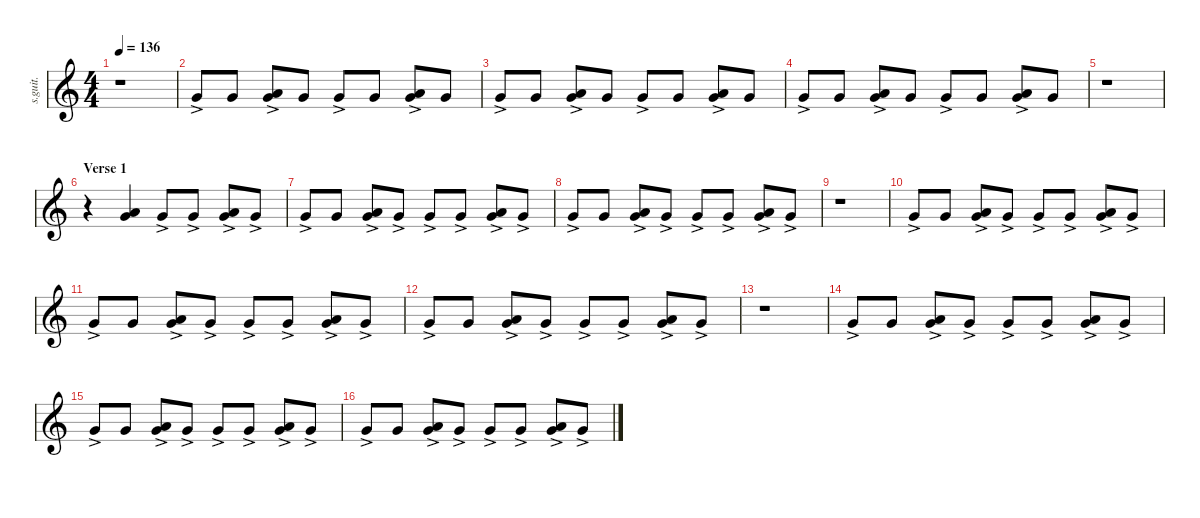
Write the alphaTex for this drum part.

\defaultSystemsLayout 4
\hideDynamics
\bracketExtendMode nobrackets
\track ("Shawn Crahan " "s.guit.") {instrument percussion}
\staff {score}
\articulation defaults
\ts (4 4)
\tempo 136
\clef g2
\ks c
r.1{dy fff} |
"Very Low Tom (hit)"{ac}.8{lyrics (0 "") lyrics (1 "") lyrics (2 "") lyrics (3 "") lyrics (4 "")} "Very Low Tom (hit)".8{lyrics (0 "") lyrics (1 "") lyrics (2 "") lyrics (3 "") lyrics (4 "")} ("Very Low Tom (hit)"{ac} "Low Floor Tom (hit)").8{lyrics (0 "") lyrics (1 "") lyrics (2 "") lyrics (3 "") lyrics (4 "")} "Very Low Tom (hit)".8{lyrics (0 "") lyrics (1 "") lyrics (2 "") lyrics (3 "") lyrics (4 "")} "Very Low Tom (hit)"{ac}.8{lyrics (0 "") lyrics (1 "") lyrics (2 "") lyrics (3 "") lyrics (4 "")} "Very Low Tom (hit)".8{lyrics (0 "") lyrics (1 "") lyrics (2 "") lyrics (3 "") lyrics (4 "")} ("Very Low Tom (hit)"{ac} "Low Floor Tom (hit)").8{lyrics (0 "") lyrics (1 "") lyrics (2 "") lyrics (3 "") lyrics (4 "")} "Very Low Tom (hit)".8{lyrics (0 "") lyrics (1 "") lyrics (2 "") lyrics (3 "") lyrics (4 "")} |
"Very Low Tom (hit)"{ac}.8{lyrics (0 "") lyrics (1 "") lyrics (2 "") lyrics (3 "") lyrics (4 "")} "Very Low Tom (hit)".8{lyrics (0 "") lyrics (1 "") lyrics (2 "") lyrics (3 "") lyrics (4 "")} ("Very Low Tom (hit)"{ac} "Low Floor Tom (hit)").8{lyrics (0 "") lyrics (1 "") lyrics (2 "") lyrics (3 "") lyrics (4 "")} "Very Low Tom (hit)".8{lyrics (0 "") lyrics (1 "") lyrics (2 "") lyrics (3 "") lyrics (4 "")} "Very Low Tom (hit)"{ac}.8{lyrics (0 "") lyrics (1 "") lyrics (2 "") lyrics (3 "") lyrics (4 "")} "Very Low Tom (hit)".8{lyrics (0 "") lyrics (1 "") lyrics (2 "") lyrics (3 "") lyrics (4 "")} ("Very Low Tom (hit)"{ac} "Low Floor Tom (hit)").8{lyrics (0 "") lyrics (1 "") lyrics (2 "") lyrics (3 "") lyrics (4 "")} "Very Low Tom (hit)".8{lyrics (0 "") lyrics (1 "") lyrics (2 "") lyrics (3 "") lyrics (4 "")} |
"Very Low Tom (hit)"{ac}.8{lyrics (0 "") lyrics (1 "") lyrics (2 "") lyrics (3 "") lyrics (4 "")} "Very Low Tom (hit)".8{lyrics (0 "") lyrics (1 "") lyrics (2 "") lyrics (3 "") lyrics (4 "")} ("Very Low Tom (hit)"{ac} "Low Floor Tom (hit)").8{lyrics (0 "") lyrics (1 "") lyrics (2 "") lyrics (3 "") lyrics (4 "")} "Very Low Tom (hit)".8{lyrics (0 "") lyrics (1 "") lyrics (2 "") lyrics (3 "") lyrics (4 "")} "Very Low Tom (hit)"{ac}.8{lyrics (0 "") lyrics (1 "") lyrics (2 "") lyrics (3 "") lyrics (4 "")} "Very Low Tom (hit)".8{lyrics (0 "") lyrics (1 "") lyrics (2 "") lyrics (3 "") lyrics (4 "")} ("Very Low Tom (hit)"{ac} "Low Floor Tom (hit)").8{lyrics (0 "") lyrics (1 "") lyrics (2 "") lyrics (3 "") lyrics (4 "")} "Very Low Tom (hit)".8{lyrics (0 "") lyrics (1 "") lyrics (2 "") lyrics (3 "") lyrics (4 "")} |
r.1 |
\section ("" "Verse 1")
r.4 ("Low Floor Tom (hit)" "Very Low Tom (hit)").4{lyrics (0 "") lyrics (1 "") lyrics (2 "") lyrics (3 "") lyrics (4 "")} "Very Low Tom (hit)"{ac}.8{lyrics (0 "") lyrics (1 "") lyrics (2 "") lyrics (3 "") lyrics (4 "")} "Very Low Tom (hit)"{ac}.8{lyrics (0 "") lyrics (1 "") lyrics (2 "") lyrics (3 "") lyrics (4 "")} ("Very Low Tom (hit)"{ac} "Low Floor Tom (hit)").8{lyrics (0 "") lyrics (1 "") lyrics (2 "") lyrics (3 "") lyrics (4 "")} "Very Low Tom (hit)"{ac}.8{lyrics (0 "") lyrics (1 "") lyrics (2 "") lyrics (3 "") lyrics (4 "")} |
"Very Low Tom (hit)"{ac}.8{lyrics (0 "") lyrics (1 "") lyrics (2 "") lyrics (3 "") lyrics (4 "")} "Very Low Tom (hit)".8{lyrics (0 "") lyrics (1 "") lyrics (2 "") lyrics (3 "") lyrics (4 "")} ("Very Low Tom (hit)"{ac} "Low Floor Tom (hit)").8{lyrics (0 "") lyrics (1 "") lyrics (2 "") lyrics (3 "") lyrics (4 "")} "Very Low Tom (hit)"{ac}.8{lyrics (0 "") lyrics (1 "") lyrics (2 "") lyrics (3 "") lyrics (4 "")} "Very Low Tom (hit)"{ac}.8{lyrics (0 "") lyrics (1 "") lyrics (2 "") lyrics (3 "") lyrics (4 "")} "Very Low Tom (hit)"{ac}.8{lyrics (0 "") lyrics (1 "") lyrics (2 "") lyrics (3 "") lyrics (4 "")} ("Very Low Tom (hit)"{ac} "Low Floor Tom (hit)").8{lyrics (0 "") lyrics (1 "") lyrics (2 "") lyrics (3 "") lyrics (4 "")} "Very Low Tom (hit)"{ac}.8{lyrics (0 "") lyrics (1 "") lyrics (2 "") lyrics (3 "") lyrics (4 "")} |
"Very Low Tom (hit)"{ac}.8{lyrics (0 "") lyrics (1 "") lyrics (2 "") lyrics (3 "") lyrics (4 "")} "Very Low Tom (hit)".8{lyrics (0 "") lyrics (1 "") lyrics (2 "") lyrics (3 "") lyrics (4 "")} ("Very Low Tom (hit)"{ac} "Low Floor Tom (hit)").8{lyrics (0 "") lyrics (1 "") lyrics (2 "") lyrics (3 "") lyrics (4 "")} "Very Low Tom (hit)"{ac}.8{lyrics (0 "") lyrics (1 "") lyrics (2 "") lyrics (3 "") lyrics (4 "")} "Very Low Tom (hit)"{ac}.8{lyrics (0 "") lyrics (1 "") lyrics (2 "") lyrics (3 "") lyrics (4 "")} "Very Low Tom (hit)"{ac}.8{lyrics (0 "") lyrics (1 "") lyrics (2 "") lyrics (3 "") lyrics (4 "")} ("Very Low Tom (hit)"{ac} "Low Floor Tom (hit)").8{lyrics (0 "") lyrics (1 "") lyrics (2 "") lyrics (3 "") lyrics (4 "")} "Very Low Tom (hit)"{ac}.8{lyrics (0 "") lyrics (1 "") lyrics (2 "") lyrics (3 "") lyrics (4 "")} |
r.1 |
"Very Low Tom (hit)"{ac}.8{lyrics (0 "") lyrics (1 "") lyrics (2 "") lyrics (3 "") lyrics (4 "")} "Very Low Tom (hit)".8{lyrics (0 "") lyrics (1 "") lyrics (2 "") lyrics (3 "") lyrics (4 "")} ("Very Low Tom (hit)"{ac} "Low Floor Tom (hit)").8{lyrics (0 "") lyrics (1 "") lyrics (2 "") lyrics (3 "") lyrics (4 "")} "Very Low Tom (hit)"{ac}.8{lyrics (0 "") lyrics (1 "") lyrics (2 "") lyrics (3 "") lyrics (4 "")} "Very Low Tom (hit)"{ac}.8{lyrics (0 "") lyrics (1 "") lyrics (2 "") lyrics (3 "") lyrics (4 "")} "Very Low Tom (hit)"{ac}.8{lyrics (0 "") lyrics (1 "") lyrics (2 "") lyrics (3 "") lyrics (4 "")} ("Very Low Tom (hit)"{ac} "Low Floor Tom (hit)").8{lyrics (0 "") lyrics (1 "") lyrics (2 "") lyrics (3 "") lyrics (4 "")} "Very Low Tom (hit)"{ac}.8{lyrics (0 "") lyrics (1 "") lyrics (2 "") lyrics (3 "") lyrics (4 "")} |
"Very Low Tom (hit)"{ac}.8{lyrics (0 "") lyrics (1 "") lyrics (2 "") lyrics (3 "") lyrics (4 "")} "Very Low Tom (hit)".8{lyrics (0 "") lyrics (1 "") lyrics (2 "") lyrics (3 "") lyrics (4 "")} ("Very Low Tom (hit)"{ac} "Low Floor Tom (hit)").8{lyrics (0 "") lyrics (1 "") lyrics (2 "") lyrics (3 "") lyrics (4 "")} "Very Low Tom (hit)"{ac}.8{lyrics (0 "") lyrics (1 "") lyrics (2 "") lyrics (3 "") lyrics (4 "")} "Very Low Tom (hit)"{ac}.8{lyrics (0 "") lyrics (1 "") lyrics (2 "") lyrics (3 "") lyrics (4 "")} "Very Low Tom (hit)"{ac}.8{lyrics (0 "") lyrics (1 "") lyrics (2 "") lyrics (3 "") lyrics (4 "")} ("Very Low Tom (hit)"{ac} "Low Floor Tom (hit)").8{lyrics (0 "") lyrics (1 "") lyrics (2 "") lyrics (3 "") lyrics (4 "")} "Very Low Tom (hit)"{ac}.8{lyrics (0 "") lyrics (1 "") lyrics (2 "") lyrics (3 "") lyrics (4 "")} |
"Very Low Tom (hit)"{ac}.8{lyrics (0 "") lyrics (1 "") lyrics (2 "") lyrics (3 "") lyrics (4 "")} "Very Low Tom (hit)".8{lyrics (0 "") lyrics (1 "") lyrics (2 "") lyrics (3 "") lyrics (4 "")} ("Very Low Tom (hit)"{ac} "Low Floor Tom (hit)").8{lyrics (0 "") lyrics (1 "") lyrics (2 "") lyrics (3 "") lyrics (4 "")} "Very Low Tom (hit)"{ac}.8{lyrics (0 "") lyrics (1 "") lyrics (2 "") lyrics (3 "") lyrics (4 "")} "Very Low Tom (hit)"{ac}.8{lyrics (0 "") lyrics (1 "") lyrics (2 "") lyrics (3 "") lyrics (4 "")} "Very Low Tom (hit)"{ac}.8{lyrics (0 "") lyrics (1 "") lyrics (2 "") lyrics (3 "") lyrics (4 "")} ("Very Low Tom (hit)"{ac} "Low Floor Tom (hit)").8{lyrics (0 "") lyrics (1 "") lyrics (2 "") lyrics (3 "") lyrics (4 "")} "Very Low Tom (hit)"{ac}.8{lyrics (0 "") lyrics (1 "") lyrics (2 "") lyrics (3 "") lyrics (4 "")} |
r.1 |
"Very Low Tom (hit)"{ac}.8{lyrics (0 "") lyrics (1 "") lyrics (2 "") lyrics (3 "") lyrics (4 "")} "Very Low Tom (hit)".8{lyrics (0 "") lyrics (1 "") lyrics (2 "") lyrics (3 "") lyrics (4 "")} ("Very Low Tom (hit)"{ac} "Low Floor Tom (hit)").8{lyrics (0 "") lyrics (1 "") lyrics (2 "") lyrics (3 "") lyrics (4 "")} "Very Low Tom (hit)"{ac}.8{lyrics (0 "") lyrics (1 "") lyrics (2 "") lyrics (3 "") lyrics (4 "")} "Very Low Tom (hit)"{ac}.8{lyrics (0 "") lyrics (1 "") lyrics (2 "") lyrics (3 "") lyrics (4 "")} "Very Low Tom (hit)"{ac}.8{lyrics (0 "") lyrics (1 "") lyrics (2 "") lyrics (3 "") lyrics (4 "")} ("Very Low Tom (hit)"{ac} "Low Floor Tom (hit)").8{lyrics (0 "") lyrics (1 "") lyrics (2 "") lyrics (3 "") lyrics (4 "")} "Very Low Tom (hit)"{ac}.8{lyrics (0 "") lyrics (1 "") lyrics (2 "") lyrics (3 "") lyrics (4 "")} |
"Very Low Tom (hit)"{ac}.8{lyrics (0 "") lyrics (1 "") lyrics (2 "") lyrics (3 "") lyrics (4 "")} "Very Low Tom (hit)".8{lyrics (0 "") lyrics (1 "") lyrics (2 "") lyrics (3 "") lyrics (4 "")} ("Very Low Tom (hit)"{ac} "Low Floor Tom (hit)").8{lyrics (0 "") lyrics (1 "") lyrics (2 "") lyrics (3 "") lyrics (4 "")} "Very Low Tom (hit)"{ac}.8{lyrics (0 "") lyrics (1 "") lyrics (2 "") lyrics (3 "") lyrics (4 "")} "Very Low Tom (hit)"{ac}.8{lyrics (0 "") lyrics (1 "") lyrics (2 "") lyrics (3 "") lyrics (4 "")} "Very Low Tom (hit)"{ac}.8{lyrics (0 "") lyrics (1 "") lyrics (2 "") lyrics (3 "") lyrics (4 "")} ("Very Low Tom (hit)"{ac} "Low Floor Tom (hit)").8{lyrics (0 "") lyrics (1 "") lyrics (2 "") lyrics (3 "") lyrics (4 "")} "Very Low Tom (hit)"{ac}.8{lyrics (0 "") lyrics (1 "") lyrics (2 "") lyrics (3 "") lyrics (4 "")} |
"Very Low Tom (hit)"{ac}.8{lyrics (0 "") lyrics (1 "") lyrics (2 "") lyrics (3 "") lyrics (4 "")} "Very Low Tom (hit)".8{lyrics (0 "") lyrics (1 "") lyrics (2 "") lyrics (3 "") lyrics (4 "")} ("Very Low Tom (hit)"{ac} "Low Floor Tom (hit)").8{lyrics (0 "") lyrics (1 "") lyrics (2 "") lyrics (3 "") lyrics (4 "")} "Very Low Tom (hit)"{ac}.8{lyrics (0 "") lyrics (1 "") lyrics (2 "") lyrics (3 "") lyrics (4 "")} "Very Low Tom (hit)"{ac}.8{lyrics (0 "") lyrics (1 "") lyrics (2 "") lyrics (3 "") lyrics (4 "")} "Very Low Tom (hit)"{ac}.8{lyrics (0 "") lyrics (1 "") lyrics (2 "") lyrics (3 "") lyrics (4 "")} ("Very Low Tom (hit)"{ac} "Low Floor Tom (hit)").8{lyrics (0 "") lyrics (1 "") lyrics (2 "") lyrics (3 "") lyrics (4 "")} "Very Low Tom (hit)"{ac}.8{lyrics (0 "") lyrics (1 "") lyrics (2 "") lyrics (3 "") lyrics (4 "")}
